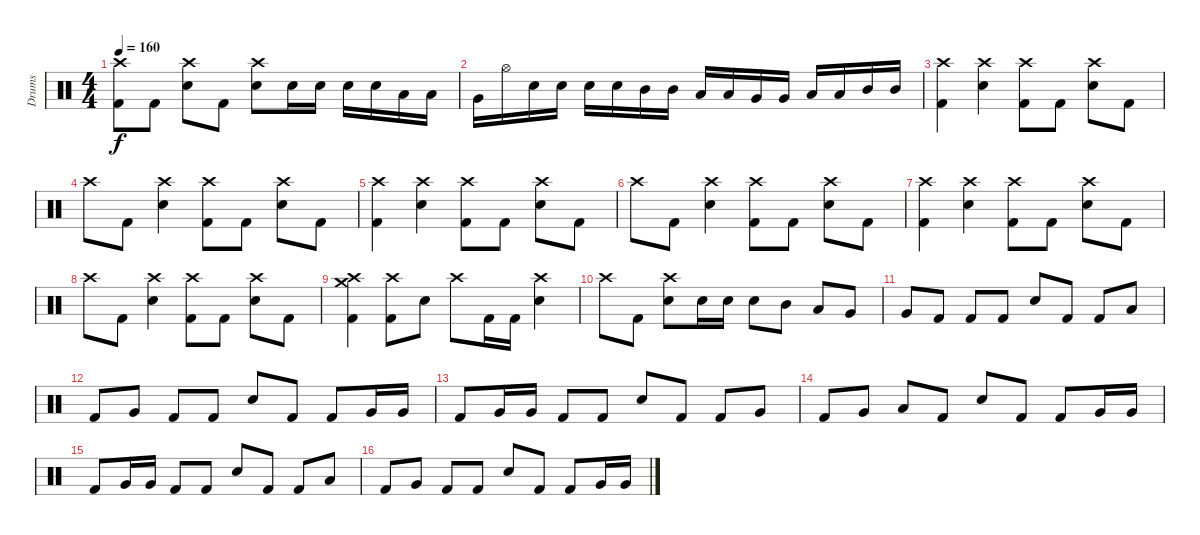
\track ("Drums" "Drums") {instrument percussion}
\staff {score}
\articulation defaults
\ts (4 4)
\tempo 160
\clef neutral
\ks c
("Crash high (hit)" "Kick (hit) 2").8{dy f} "Kick (hit) 2".8 ("Crash high (hit)" "Electric Snare (hit)").8 "Kick (hit) 2".8 ("Crash high (hit)" "Electric Snare (hit)").8 "Electric Snare (hit)".16 "Electric Snare (hit)".16 "Electric Snare (hit)".16 "Electric Snare (hit)".16 "Low Tom (hit)".16 "Low Tom (hit)".16 |
"Very Low Tom (hit)".16 "Hi-Hat (open)".16 "Electric Snare (hit)".16 "Electric Snare (hit)".16 "Electric Snare (hit)".16 "Electric Snare (hit)".16 "Mid Tom (hit)".16 "Mid Tom (hit)".16 "Low Tom (hit)".16 "Low Tom (hit)".16 "Very Low Tom (hit)".16 "Very Low Tom (hit)".16 "Low Tom (hit)".16 "Low Tom (hit)".16 "Mid Tom (hit)".16 "Mid Tom (hit)".16 |
("Crash high (hit)" "Kick (hit) 2").4 ("Crash high (hit)" "Electric Snare (hit)").4 ("Crash high (hit)" "Kick (hit) 2").8 "Kick (hit) 2".8 ("Crash high (hit)" "Electric Snare (hit)").8 "Kick (hit) 2".8 |
"Crash high (hit)".8 "Kick (hit) 2".8 ("Crash high (hit)" "Electric Snare (hit)").4 ("Crash high (hit)" "Kick (hit) 2").8 "Kick (hit) 2".8 ("Crash high (hit)" "Electric Snare (hit)").8 "Kick (hit) 2".8 |
("Crash high (hit)" "Kick (hit) 2").4 ("Crash high (hit)" "Electric Snare (hit)").4 ("Crash high (hit)" "Kick (hit) 2").8 "Kick (hit) 2".8 ("Crash high (hit)" "Electric Snare (hit)").8 "Kick (hit) 2".8 |
"Crash high (hit)".8 "Kick (hit) 2".8 ("Crash high (hit)" "Electric Snare (hit)").4 ("Crash high (hit)" "Kick (hit) 2").8 "Kick (hit) 2".8 ("Crash high (hit)" "Electric Snare (hit)").8 "Kick (hit) 2".8 |
("Crash high (hit)" "Kick (hit) 2").4 ("Crash high (hit)" "Electric Snare (hit)").4 ("Crash high (hit)" "Kick (hit) 2").8 "Kick (hit) 2".8 ("Crash high (hit)" "Electric Snare (hit)").8 "Kick (hit) 2".8 |
"Crash high (hit)".8 "Kick (hit) 2".8 ("Crash high (hit)" "Electric Snare (hit)").4 ("Crash high (hit)" "Kick (hit) 2").8 "Kick (hit) 2".8 ("Crash high (hit)" "Electric Snare (hit)").8 "Kick (hit) 2".8 |
("Crash high (hit)" "Crash medium (hit)" "Kick (hit) 2").4 ("Crash high (hit)" "Kick (hit) 2").8 "Electric Snare (hit)".8 "Crash high (hit)".8 "Kick (hit) 2".16 "Kick (hit) 2".16 ("Crash high (hit)" "Electric Snare (hit)").4 |
"Crash high (hit)".8 "Kick (hit) 2".8 ("Crash high (hit)" "Electric Snare (hit)").8 "Electric Snare (hit)".16 "Electric Snare (hit)".16 "Electric Snare (hit)".8 "Mid Tom (hit)".8 "Low Tom (hit)".8 "Very Low Tom (hit)".8 |
"Very Low Tom (hit)".8 "Kick (hit) 2".8 "Kick (hit) 2".8 "Kick (hit) 2".8 "Electric Snare (hit)".8 "Kick (hit) 2".8 "Kick (hit) 2".8 "Low Tom (hit)".8 |
"Kick (hit) 2".8 "Very Low Tom (hit)".8 "Kick (hit) 2".8 "Kick (hit) 2".8 "Electric Snare (hit)".8 "Kick (hit) 2".8 "Kick (hit) 2".8 "Very Low Tom (hit)".16 "Very Low Tom (hit)".16 |
"Kick (hit) 2".8 "Very Low Tom (hit)".16 "Very Low Tom (hit)".16 "Kick (hit) 2".8 "Kick (hit) 2".8 "Electric Snare (hit)".8 "Kick (hit) 2".8 "Kick (hit) 2".8 "Very Low Tom (hit)".8 |
"Kick (hit) 2".8 "Very Low Tom (hit)".8 "Low Tom (hit)".8 "Kick (hit) 2".8 "Electric Snare (hit)".8 "Kick (hit) 2".8 "Kick (hit) 2".8 "Very Low Tom (hit)".16 "Very Low Tom (hit)".16 |
"Kick (hit) 2".8 "Very Low Tom (hit)".16 "Very Low Tom (hit)".16 "Kick (hit) 2".8 "Kick (hit) 2".8 "Electric Snare (hit)".8 "Kick (hit) 2".8 "Kick (hit) 2".8 "Low Tom (hit)".8 |
"Kick (hit) 2".8 "Very Low Tom (hit)".8 "Kick (hit) 2".8 "Kick (hit) 2".8 "Electric Snare (hit)".8 "Kick (hit) 2".8 "Kick (hit) 2".8 "Very Low Tom (hit)".16 "Very Low Tom (hit)".16
